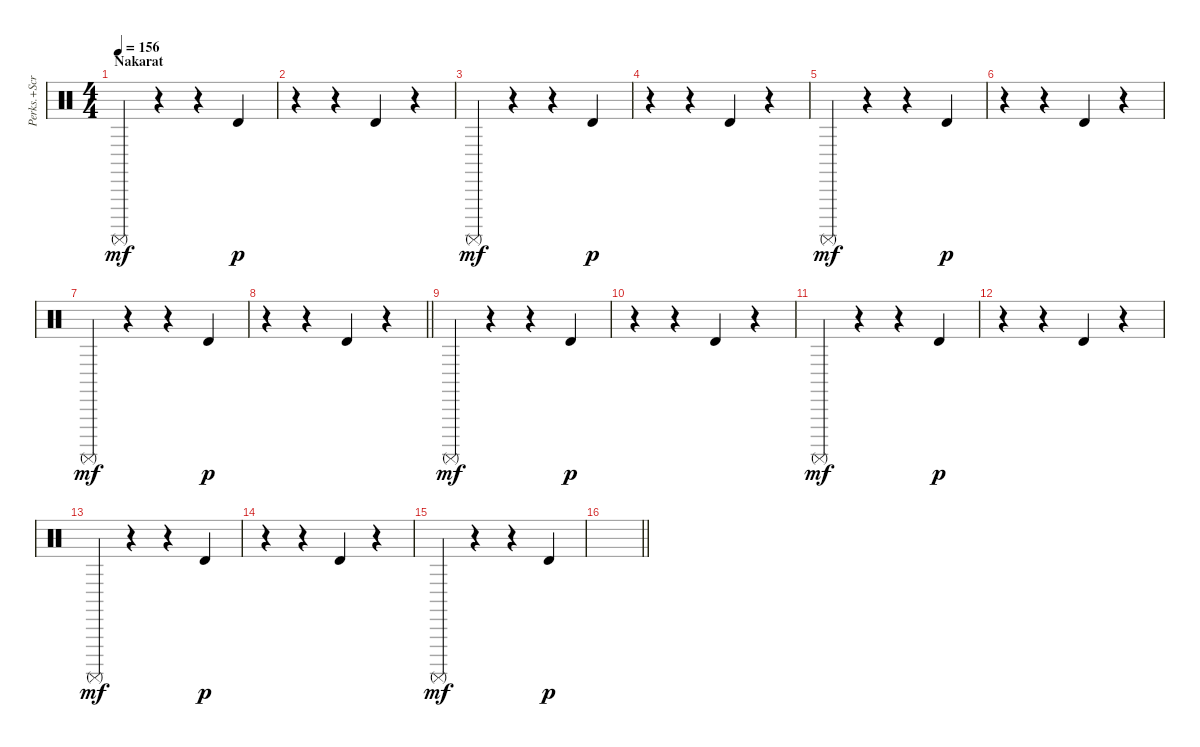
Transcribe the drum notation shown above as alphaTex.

\track ("Perks.+Scratch" "Perks.+Scr") {instrument percussion}
\staff {score}
\articulation defaults
\ts (4 4)
\section ("" "Nakarat")
\tempo 156
\clef neutral
\ks c "Surdo (mute)".4{dy mf}
r.4 r.4 "Timbale high (hit)".4{dy p} |
r.4 r.4 "Timbale high (hit)".4 r.4 |
"Surdo (mute)".4{dy mf} r.4 r.4 "Timbale high (hit)".4{dy p} |
r.4 r.4 "Timbale high (hit)".4 r.4 |
"Surdo (mute)".4{dy mf} r.4 r.4 "Timbale high (hit)".4{dy p} |
r.4 r.4 "Timbale high (hit)".4 r.4 |
"Surdo (mute)".4{dy mf} r.4 r.4 "Timbale high (hit)".4{dy p} |
\barLineRight lightlight
r.4 r.4 "Timbale high (hit)".4 r.4 |
"Surdo (mute)".4{dy mf} r.4 r.4 "Timbale high (hit)".4{dy p} |
r.4 r.4 "Timbale high (hit)".4 r.4 |
"Surdo (mute)".4{dy mf} r.4 r.4 "Timbale high (hit)".4{dy p} |
r.4 r.4 "Timbale high (hit)".4 r.4 |
"Surdo (mute)".4{dy mf} r.4 r.4 "Timbale high (hit)".4{dy p} |
r.4 r.4 "Timbale high (hit)".4 r.4 |
"Surdo (mute)".4{dy mf} r.4 r.4 "Timbale high (hit)".4{dy p} |
\barLineRight lightlight
